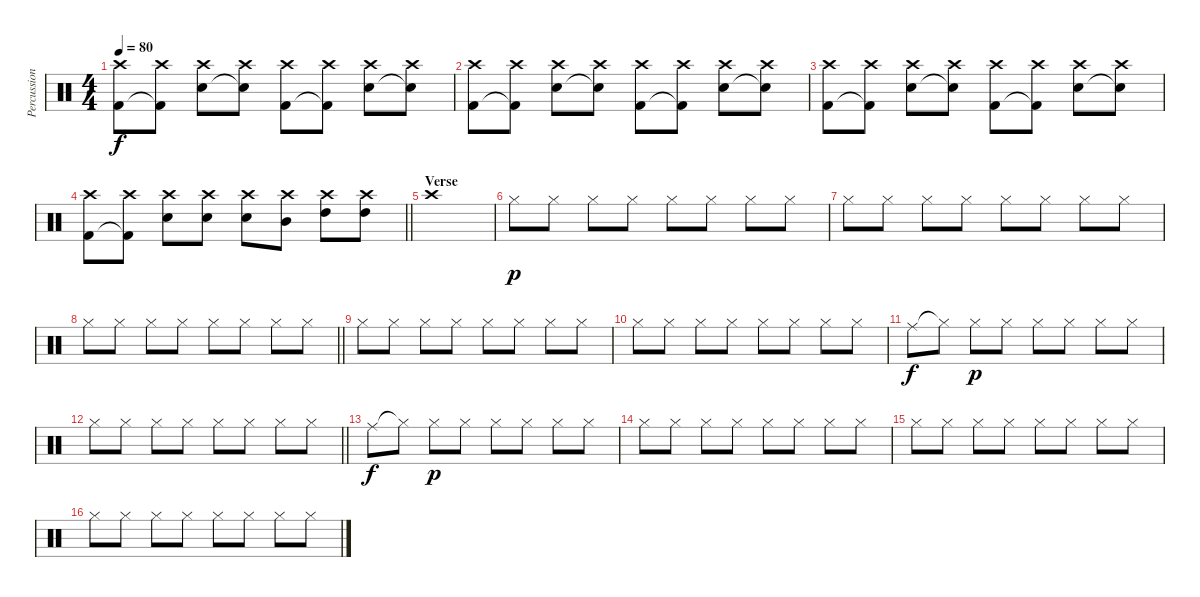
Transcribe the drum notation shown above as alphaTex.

\track ("Percussions" "Percussion") {instrument percussion}
\staff {score}
\articulation defaults
\ts (4 4)
\section ("" "")
\tempo 80
\clef neutral
\ks c
("Crash high (hit)" "Kick (hit) 2").8{dy f} ("Crash high (hit)" "Kick (hit) 2"{t}).8 ("Crash high (hit)" "Electric Snare (hit)").8 ("Crash high (hit)" "Snare (hit)"{t}).8 ("Crash high (hit)" "Kick (hit) 2").8 ("Crash high (hit)" "Kick (hit) 2"{t}).8 ("Crash high (hit)" "Electric Snare (hit)").8 ("Crash high (hit)" "Snare (hit)"{t}).8 |
("Crash high (hit)" "Kick (hit) 2").8 ("Crash high (hit)" "Kick (hit) 2"{t}).8 ("Crash high (hit)" "Electric Snare (hit)").8 ("Crash high (hit)" "Snare (hit)"{t}).8 ("Crash high (hit)" "Kick (hit) 2").8 ("Crash high (hit)" "Kick (hit) 2"{t}).8 ("Crash high (hit)" "Electric Snare (hit)").8 ("Crash high (hit)" "Electric Snare (hit)"{t}).8 |
("Crash high (hit)" "Kick (hit) 2").8 ("Crash high (hit)" "Kick (hit) 2"{t}).8 ("Crash high (hit)" "Electric Snare (hit)").8 ("Crash high (hit)" "Snare (hit)"{t}).8 ("Crash high (hit)" "Kick (hit) 2").8 ("Crash high (hit)" "Kick (hit) 2"{t}).8 ("Crash high (hit)" "Electric Snare (hit)").8 ("Crash high (hit)" "Snare (hit)"{t}).8 |
\barLineRight lightlight
("Crash high (hit)" "Kick (hit) 2").8 ("Crash high (hit)" "Kick (hit) 2"{t}).8 ("Crash high (hit)" "Electric Snare (hit)").8 ("Crash high (hit)" "Electric Snare (hit)").8 ("Crash high (hit)" "Electric Snare (hit)").8 ("Crash high (hit)" "Mid Tom (hit)").8 ("Crash high (hit)" "High Tom (hit)").8 ("Crash high (hit)" "High Tom (hit)").8 |
\section ("" "Verse")
"Crash high (hit)".1 |
"Hi-Hat (closed)".8{dy p volume 9} "Hi-Hat (closed)".8 "Hi-Hat (closed)".8 "Hi-Hat (closed)".8 "Hi-Hat (closed)".8 "Hi-Hat (closed)".8 "Hi-Hat (closed)".8 "Hi-Hat (closed)".8 |
"Hi-Hat (closed)".8 "Hi-Hat (closed)".8 "Hi-Hat (closed)".8 "Hi-Hat (closed)".8 "Hi-Hat (closed)".8 "Hi-Hat (closed)".8 "Hi-Hat (closed)".8 "Hi-Hat (closed)".8 |
\barLineRight lightlight "Hi-Hat (closed)".8 "Hi-Hat (closed)".8 "Hi-Hat (closed)".8 "Hi-Hat (closed)".8 "Hi-Hat (closed)".8 "Hi-Hat (closed)".8 "Hi-Hat (closed)".8 "Hi-Hat (closed)".8
|
\section ("" "")
"Hi-Hat (closed)".8 "Hi-Hat (closed)".8 "Hi-Hat (closed)".8 "Hi-Hat (closed)".8 "Hi-Hat (closed)".8 "Hi-Hat (closed)".8 "Hi-Hat (closed)".8 "Hi-Hat (closed)".8 |
"Hi-Hat (closed)".8 "Hi-Hat (closed)".8 "Hi-Hat (closed)".8 "Hi-Hat (closed)".8 "Hi-Hat (closed)".8 "Hi-Hat (closed)".8 "Hi-Hat (closed)".8 "Hi-Hat (closed)".8 |
"Ride (middle)".8{dy f} "Hi-Hat (closed)"{t}.8 "Hi-Hat (closed)".8{dy p} "Hi-Hat (closed)".8 "Hi-Hat (closed)".8 "Hi-Hat (closed)".8 "Hi-Hat (closed)".8 "Hi-Hat (closed)".8 |
\barLineRight lightlight "Hi-Hat (closed)".8 "Hi-Hat (closed)".8 "Hi-Hat (closed)".8 "Hi-Hat (closed)".8 "Hi-Hat (closed)".8 "Hi-Hat (closed)".8 "Hi-Hat (closed)".8 "Hi-Hat (closed)".8
|
\section ("" "")
"Ride (middle)".8{dy f} "Hi-Hat (closed)"{t}.8 "Hi-Hat (closed)".8{dy p} "Hi-Hat (closed)".8 "Hi-Hat (closed)".8 "Hi-Hat (closed)".8 "Hi-Hat (closed)".8 "Hi-Hat (closed)".8 |
"Hi-Hat (closed)".8 "Hi-Hat (closed)".8 "Hi-Hat (closed)".8 "Hi-Hat (closed)".8 "Hi-Hat (closed)".8 "Hi-Hat (closed)".8 "Hi-Hat (closed)".8 "Hi-Hat (closed)".8 |
"Hi-Hat (closed)".8 "Hi-Hat (closed)".8 "Hi-Hat (closed)".8 "Hi-Hat (closed)".8 "Hi-Hat (closed)".8 "Hi-Hat (closed)".8 "Hi-Hat (closed)".8 "Hi-Hat (closed)".8 |
"Hi-Hat (closed)".8 "Hi-Hat (closed)".8 "Hi-Hat (closed)".8 "Hi-Hat (closed)".8 "Hi-Hat (closed)".8 "Hi-Hat (closed)".8 "Hi-Hat (closed)".8 "Hi-Hat (closed)".8
